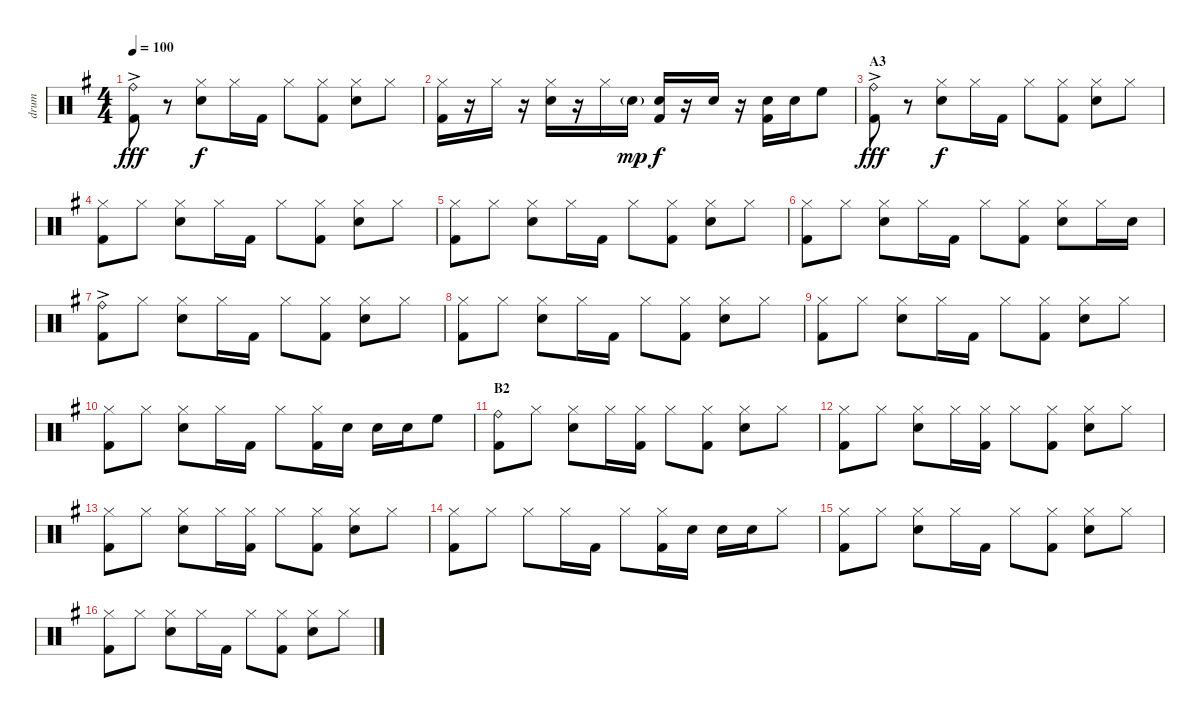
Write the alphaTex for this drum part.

\track ("drum" "drum") {instrument percussion}
\staff {score}
\articulation defaults
\ts (4 4)
\tempo 100
\clef neutral
\ks g
("Ride (bell)"{ac} "Kick (hit) 2").8{dy fff} r.8 ("Hi-Hat (closed)" "Snare (hit) 2").8{dy f} "Hi-Hat (closed)".16 "Kick (hit) 2".16 "Hi-Hat (closed)".8 ("Hi-Hat (closed)" "Kick (hit) 2").8 ("Hi-Hat (closed)" "Snare (hit) 2").8 "Hi-Hat (closed)".8 |
("Hi-Hat (closed)" "Kick (hit) 2").16 r.16 "Hi-Hat (closed)".16 r.16 ("Hi-Hat (closed)" "Snare (hit) 2").16 r.16 "Hi-Hat (closed)".16 "Snare (hit) 2"{g}.16{dy mp} ("Snare (hit) 2" "Kick (hit) 2").16{dy f} r.16 "Snare (hit) 2".16 r.16 ("Snare (hit) 2" "Kick (hit) 2").16 "Snare (hit) 2".16 "High Floor Tom (hit)".8 |
\section ("" "A3")
("Ride (bell)"{ac} "Kick (hit) 2").8{dy fff} r.8 ("Hi-Hat (closed)" "Snare (hit) 2").8{dy f} "Hi-Hat (closed)".16 "Kick (hit) 2".16 "Hi-Hat (closed)".8 ("Hi-Hat (closed)" "Kick (hit) 2").8 ("Hi-Hat (closed)" "Snare (hit) 2").8 "Hi-Hat (closed)".8 |
("Hi-Hat (closed)" "Kick (hit) 2").8 "Hi-Hat (closed)".8 ("Hi-Hat (closed)" "Snare (hit) 2").8 "Hi-Hat (closed)".16 "Kick (hit) 2".16 "Hi-Hat (closed)".8 ("Hi-Hat (closed)" "Kick (hit) 2").8 ("Hi-Hat (closed)" "Snare (hit) 2").8 "Hi-Hat (closed)".8 |
("Hi-Hat (closed)" "Kick (hit) 2").8 "Hi-Hat (closed)".8 ("Hi-Hat (closed)" "Snare (hit) 2").8 "Hi-Hat (closed)".16 "Kick (hit) 2".16 "Hi-Hat (closed)".8 ("Hi-Hat (closed)" "Kick (hit) 2").8 ("Hi-Hat (closed)" "Snare (hit) 2").8 "Hi-Hat (closed)".8 |
("Hi-Hat (closed)" "Kick (hit) 2").8 "Hi-Hat (closed)".8 ("Hi-Hat (closed)" "Snare (hit) 2").8 "Hi-Hat (closed)".16 "Kick (hit) 2".16 "Hi-Hat (closed)".8 ("Hi-Hat (closed)" "Kick (hit) 2").8 ("Hi-Hat (closed)" "Snare (hit) 2").8 "Hi-Hat (closed)".16 "Snare (hit) 2".16 |
("Ride (bell)"{ac} "Kick (hit) 2").8 "Hi-Hat (closed)".8 ("Hi-Hat (closed)" "Snare (hit) 2").8 "Hi-Hat (closed)".16 "Kick (hit) 2".16 "Hi-Hat (closed)".8 ("Hi-Hat (closed)" "Kick (hit) 2").8 ("Hi-Hat (closed)" "Snare (hit) 2").8 "Hi-Hat (closed)".8 |
("Hi-Hat (closed)" "Kick (hit) 2").8 "Hi-Hat (closed)".8 ("Hi-Hat (closed)" "Snare (hit) 2").8 "Hi-Hat (closed)".16 "Kick (hit) 2".16 "Hi-Hat (closed)".8 ("Hi-Hat (closed)" "Kick (hit) 2").8 ("Hi-Hat (closed)" "Snare (hit) 2").8 "Hi-Hat (closed)".8 |
("Hi-Hat (closed)" "Kick (hit) 2").8 "Hi-Hat (closed)".8 ("Hi-Hat (closed)" "Snare (hit) 2").8 "Hi-Hat (closed)".16 "Kick (hit) 2".16 "Hi-Hat (closed)".8 ("Hi-Hat (closed)" "Kick (hit) 2").8 ("Hi-Hat (closed)" "Snare (hit) 2").8 "Hi-Hat (closed)".8 |
("Hi-Hat (closed)" "Kick (hit) 2").8 "Hi-Hat (closed)".8 ("Hi-Hat (closed)" "Snare (hit) 2").8 "Hi-Hat (closed)".16 "Kick (hit) 2".16 "Hi-Hat (closed)".8 ("Hi-Hat (closed)" "Kick (hit) 2").16 "Snare (hit) 2".16 "Snare (hit) 2".16 "Snare (hit) 2".16 "High Floor Tom (hit)".8 |
\section ("" "B2")
("Ride (bell)" "Kick (hit) 2").8 "Hi-Hat (closed)".8 ("Hi-Hat (closed)" "Snare (hit) 2").8 "Hi-Hat (closed)".16 ("Hi-Hat (closed)" "Kick (hit) 2").16 "Hi-Hat (closed)".8 ("Hi-Hat (closed)" "Kick (hit) 2").8 ("Hi-Hat (closed)" "Snare (hit) 2").8 "Hi-Hat (closed)".8 |
("Hi-Hat (closed)" "Kick (hit) 2").8 "Hi-Hat (closed)".8 ("Hi-Hat (closed)" "Snare (hit) 2").8 "Hi-Hat (closed)".16 ("Hi-Hat (closed)" "Kick (hit) 2").16 "Hi-Hat (closed)".8 ("Hi-Hat (closed)" "Kick (hit) 2").8 ("Hi-Hat (closed)" "Snare (hit) 2").8 "Hi-Hat (closed)".8 |
("Hi-Hat (closed)" "Kick (hit) 2").8 "Hi-Hat (closed)".8 ("Hi-Hat (closed)" "Snare (hit) 2").8 "Hi-Hat (closed)".16 ("Hi-Hat (closed)" "Kick (hit) 2").16 "Hi-Hat (closed)".8 ("Hi-Hat (closed)" "Kick (hit) 2").8 ("Hi-Hat (closed)" "Snare (hit) 2").8 "Hi-Hat (closed)".8 |
("Hi-Hat (closed)" "Kick (hit) 2").8 "Hi-Hat (closed)".8 "Hi-Hat (closed)".8 "Hi-Hat (closed)".16 "Kick (hit) 2".16 "Hi-Hat (closed)".8 ("Hi-Hat (closed)" "Kick (hit) 2").16 "Snare (hit) 2".16 "Snare (hit) 2".16 "Snare (hit) 2".16 "Hi-Hat (closed)".8 |
("Hi-Hat (closed)" "Kick (hit) 2").8 "Hi-Hat (closed)".8 ("Hi-Hat (closed)" "Snare (hit) 2").8 "Hi-Hat (closed)".16 "Kick (hit) 2".16 "Hi-Hat (closed)".8 ("Hi-Hat (closed)" "Kick (hit) 2").8 ("Hi-Hat (closed)" "Snare (hit) 2").8 "Hi-Hat (closed)".8 |
("Hi-Hat (closed)" "Kick (hit) 2").8 "Hi-Hat (closed)".8 ("Hi-Hat (closed)" "Snare (hit) 2").8 "Hi-Hat (closed)".16 "Kick (hit) 2".16 "Hi-Hat (closed)".8 ("Hi-Hat (closed)" "Kick (hit) 2").8 ("Hi-Hat (closed)" "Snare (hit) 2").8 "Hi-Hat (closed)".8
